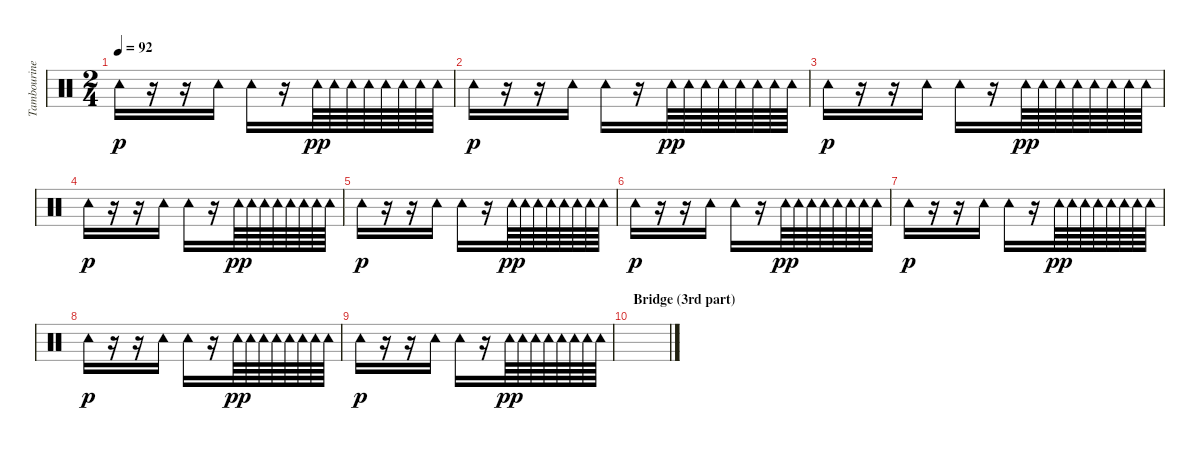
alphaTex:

\track ("Tambourine" "Tambourine") {instrument percussion}
\staff {score}
\articulation defaults
\ts (2 4)
\tempo 92
\clef neutral
\ks c "Tambourine (hit)".16{dy p volume 13}
r.16 r.16 "Tambourine (hit)".16 "Tambourine (hit)".16 r.16 "Tambourine (hit)".64{dy pp} "Tambourine (hit)".64 "Tambourine (hit)".64 "Tambourine (hit)".64 "Tambourine (hit)".64 "Tambourine (hit)".64 "Tambourine (hit)".64 "Tambourine (hit)".64 |
"Tambourine (hit)".16{dy p volume 13} r.16 r.16 "Tambourine (hit)".16 "Tambourine (hit)".16 r.16 "Tambourine (hit)".64{dy pp} "Tambourine (hit)".64 "Tambourine (hit)".64 "Tambourine (hit)".64 "Tambourine (hit)".64 "Tambourine (hit)".64 "Tambourine (hit)".64 "Tambourine (hit)".64 |
"Tambourine (hit)".16{dy p volume 13} r.16 r.16 "Tambourine (hit)".16 "Tambourine (hit)".16 r.16 "Tambourine (hit)".64{dy pp} "Tambourine (hit)".64 "Tambourine (hit)".64 "Tambourine (hit)".64 "Tambourine (hit)".64 "Tambourine (hit)".64 "Tambourine (hit)".64 "Tambourine (hit)".64 |
"Tambourine (hit)".16{dy p volume 13} r.16 r.16 "Tambourine (hit)".16 "Tambourine (hit)".16 r.16 "Tambourine (hit)".64{dy pp} "Tambourine (hit)".64 "Tambourine (hit)".64 "Tambourine (hit)".64 "Tambourine (hit)".64 "Tambourine (hit)".64 "Tambourine (hit)".64 "Tambourine (hit)".64 |
"Tambourine (hit)".16{dy p volume 13} r.16 r.16 "Tambourine (hit)".16 "Tambourine (hit)".16 r.16 "Tambourine (hit)".64{dy pp} "Tambourine (hit)".64 "Tambourine (hit)".64 "Tambourine (hit)".64 "Tambourine (hit)".64 "Tambourine (hit)".64 "Tambourine (hit)".64 "Tambourine (hit)".64 |
"Tambourine (hit)".16{dy p volume 13} r.16 r.16 "Tambourine (hit)".16 "Tambourine (hit)".16 r.16 "Tambourine (hit)".64{dy pp} "Tambourine (hit)".64 "Tambourine (hit)".64 "Tambourine (hit)".64 "Tambourine (hit)".64 "Tambourine (hit)".64 "Tambourine (hit)".64 "Tambourine (hit)".64 |
"Tambourine (hit)".16{dy p volume 13} r.16 r.16 "Tambourine (hit)".16 "Tambourine (hit)".16 r.16 "Tambourine (hit)".64{dy pp} "Tambourine (hit)".64 "Tambourine (hit)".64 "Tambourine (hit)".64 "Tambourine (hit)".64 "Tambourine (hit)".64 "Tambourine (hit)".64 "Tambourine (hit)".64 |
"Tambourine (hit)".16{dy p volume 13} r.16 r.16 "Tambourine (hit)".16 "Tambourine (hit)".16 r.16 "Tambourine (hit)".64{dy pp} "Tambourine (hit)".64 "Tambourine (hit)".64 "Tambourine (hit)".64 "Tambourine (hit)".64 "Tambourine (hit)".64 "Tambourine (hit)".64 "Tambourine (hit)".64 |
"Tambourine (hit)".16{dy p volume 13} r.16 r.16 "Tambourine (hit)".16 "Tambourine (hit)".16 r.16 "Tambourine (hit)".64{dy pp} "Tambourine (hit)".64 "Tambourine (hit)".64 "Tambourine (hit)".64 "Tambourine (hit)".64 "Tambourine (hit)".64 "Tambourine (hit)".64 "Tambourine (hit)".64 |
\section ("" "Bridge (3rd part)")
